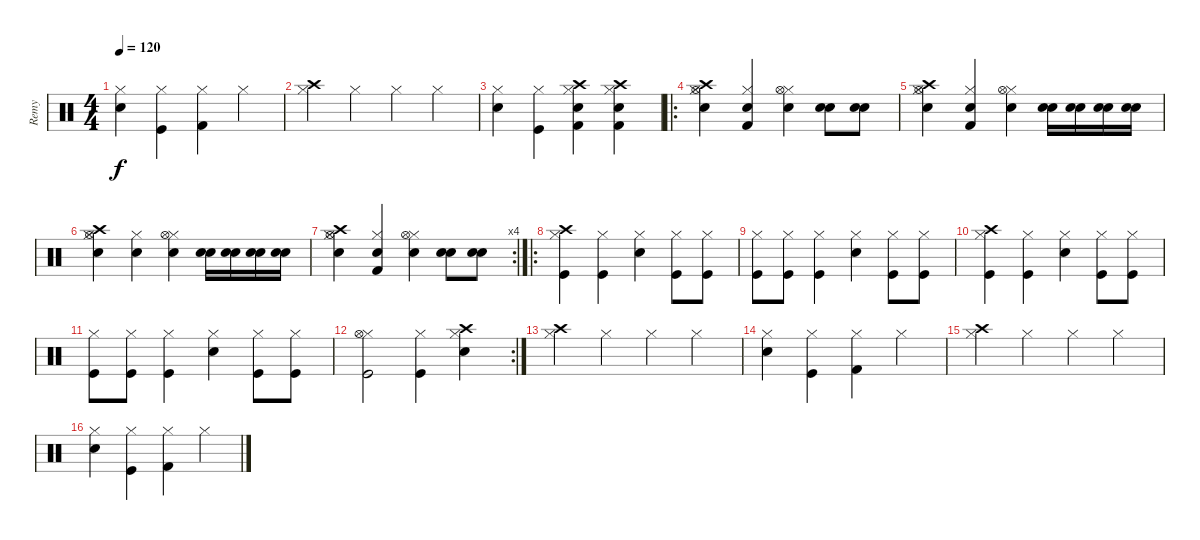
\track ("Remy" "Remy") {instrument percussion}
\staff {score}
\articulation defaults
\ts (4 4)
\tempo 120
\clef neutral
\ks c
("Snare (hit) 2" "Hi-Hat (closed)").4{dy f} ("Kick (hit)" "Hi-Hat (closed)").4 ("Kick (hit) 2" "Hi-Hat (closed)").4 "Hi-Hat (closed)".4 |
("Crash high (hit)" "Hi-Hat (closed)").4 "Hi-Hat (closed)".4 "Hi-Hat (closed)".4 "Hi-Hat (closed)".4 |
("Snare (hit) 2" "Hi-Hat (closed)").4 ("Kick (hit)" "Hi-Hat (closed)").4 ("Kick (hit) 2" "Snare (hit) 2" "Hi-Hat (closed)" "Crash high (hit)").4 ("Kick (hit) 2" "Snare (hit) 2" "Hi-Hat (closed)" "Crash high (hit)").4 |
\ro
("Hi-Hat (closed)" "Crash high (hit)" "Hi-Hat (open)" "Snare (hit) 2").4{volume 11} ("Hi-Hat (closed)" "Kick (hit) 2" "Snare (hit) 2").4 ("Hi-Hat (closed)" "Snare (hit) 2" "Hi-Hat (open)").4 ("Snare (hit) 2" "Snare (hit) 2").8 ("Snare (hit) 2" "Snare (hit) 2").8 |
("Hi-Hat (closed)" "Crash high (hit)" "Hi-Hat (open)" "Snare (hit) 2").4 ("Hi-Hat (closed)" "Kick (hit) 2" "Snare (hit) 2").4 ("Hi-Hat (closed)" "Snare (hit) 2" "Hi-Hat (open)").4 ("Snare (hit) 2" "Snare (hit) 2").16 ("Snare (hit) 2" "Snare (hit) 2").16 ("Snare (hit) 2" "Snare (hit) 2").16 ("Snare (hit) 2" "Snare (hit) 2").16 |
("Hi-Hat (closed)" "Crash high (hit)" "Hi-Hat (open)" "Snare (hit) 2").4 ("Hi-Hat (closed)" "Snare (hit) 2").4 ("Hi-Hat (closed)" "Snare (hit) 2" "Hi-Hat (open)").4 ("Snare (hit) 2" "Snare (hit) 2").16 ("Snare (hit) 2" "Snare (hit) 2").16 ("Snare (hit) 2" "Snare (hit) 2").16 ("Snare (hit) 2" "Snare (hit) 2").16 |
\rc 4
("Hi-Hat (closed)" "Crash high (hit)" "Hi-Hat (open)" "Snare (hit) 2").4 ("Hi-Hat (closed)" "Kick (hit) 2" "Snare (hit) 2").4 ("Hi-Hat (closed)" "Snare (hit) 2" "Hi-Hat (open)").4 ("Snare (hit) 2" "Snare (hit) 2").8 ("Snare (hit) 2" "Snare (hit) 2").8 |
\ro
("Hi-Hat (closed)" "Crash high (hit)" "Kick (hit)").4 ("Hi-Hat (closed)" "Kick (hit)").4 ("Hi-Hat (closed)" "Snare (hit) 2").4 ("Hi-Hat (closed)" "Kick (hit)").8 ("Hi-Hat (closed)" "Kick (hit)").8 |
("Hi-Hat (closed)" "Kick (hit)").8 ("Hi-Hat (closed)" "Kick (hit)").8 ("Hi-Hat (closed)" "Kick (hit)").4 ("Hi-Hat (closed)" "Snare (hit) 2").4 ("Hi-Hat (closed)" "Kick (hit)").8 ("Hi-Hat (closed)" "Kick (hit)").8 |
("Hi-Hat (closed)" "Crash high (hit)" "Kick (hit)").4 ("Hi-Hat (closed)" "Kick (hit)").4 ("Hi-Hat (closed)" "Snare (hit) 2").4 ("Hi-Hat (closed)" "Kick (hit)").8 ("Hi-Hat (closed)" "Kick (hit)").8 |
("Hi-Hat (closed)" "Kick (hit)").8 ("Hi-Hat (closed)" "Kick (hit)").8 ("Hi-Hat (closed)" "Kick (hit)").4 ("Hi-Hat (closed)" "Snare (hit) 2").4 ("Hi-Hat (closed)" "Kick (hit)").8 ("Hi-Hat (closed)" "Kick (hit)").8 |
\rc 2
("Hi-Hat (closed)" "Hi-Hat (open)" "Kick (hit)").2 ("Hi-Hat (closed)" "Kick (hit)").4 ("Hi-Hat (closed)" "Snare (hit) 2" "Crash high (hit)").4 |
("Crash high (hit)" "Hi-Hat (closed)").4 "Hi-Hat (closed)".4 "Hi-Hat (closed)".4 "Hi-Hat (closed)".4 |
("Snare (hit) 2" "Hi-Hat (closed)").4 ("Kick (hit)" "Hi-Hat (closed)").4 ("Kick (hit) 2" "Hi-Hat (closed)").4 "Hi-Hat (closed)".4 |
("Crash high (hit)" "Hi-Hat (closed)").4 "Hi-Hat (closed)".4 "Hi-Hat (closed)".4 "Hi-Hat (closed)".4 |
("Snare (hit) 2" "Hi-Hat (closed)").4 ("Kick (hit)" "Hi-Hat (closed)").4 ("Kick (hit) 2" "Hi-Hat (closed)").4 "Hi-Hat (closed)".4
